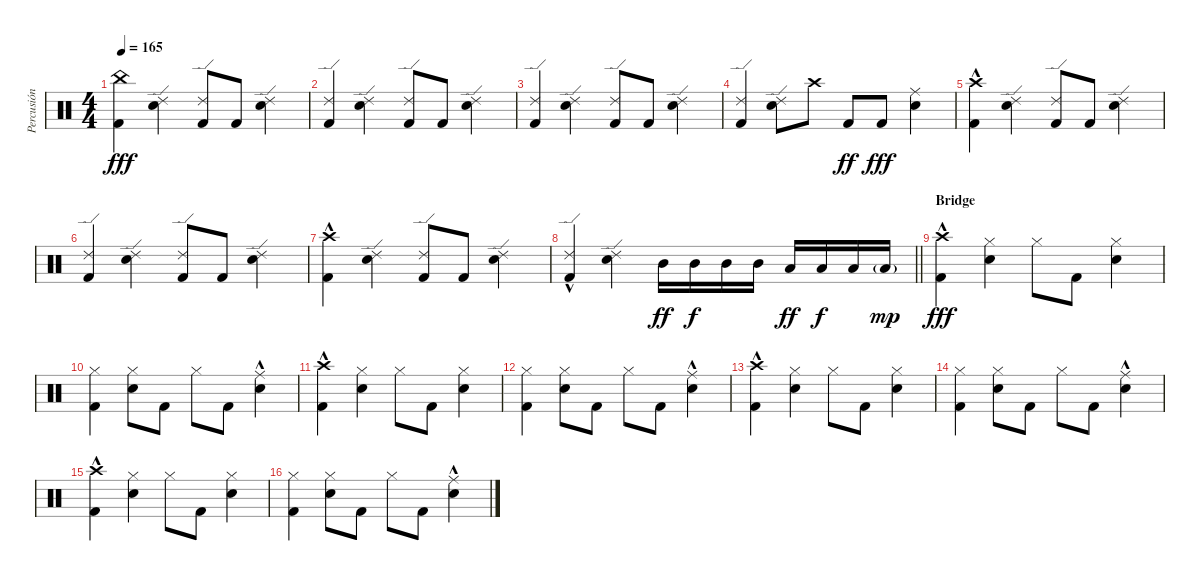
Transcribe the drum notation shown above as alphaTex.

\track ("Percusión" "Percusión") {instrument percussion}
\staff {score}
\articulation defaults
\ts (4 4)
\tempo 165
\clef neutral
\ks c
("Kick (hit) 2" "China (hit)").4{dy fff} ("Electric Snare (hit)" "Ride (edge) 2").4 ("Kick (hit) 2" "Ride (edge) 2").8 "Kick (hit) 2".8 ("Electric Snare (hit)" "Ride (edge) 2").4 |
("Kick (hit) 2" "Ride (edge) 2").4 ("Electric Snare (hit)" "Ride (edge) 2").4 ("Kick (hit) 2" "Ride (edge) 2").8 "Kick (hit) 2".8 ("Electric Snare (hit)" "Ride (edge) 2").4 |
("Kick (hit) 2" "Ride (edge) 2").4 ("Electric Snare (hit)" "Ride (edge) 2").4 ("Kick (hit) 2" "Ride (edge) 2").8 "Kick (hit) 2".8 ("Electric Snare (hit)" "Ride (edge) 2").4 |
("Kick (hit) 2" "Ride (edge) 2").4 ("Electric Snare (hit)" "Ride (edge) 2").8 "Crash high (hit)".8 "Kick (hit) 2".8{dy ff} "Kick (hit) 2".8{dy fff} ("Electric Snare (hit)" "Ride (middle)").4 |
("Kick (hit) 2" "Crash high (hit)"{hac}).4 ("Electric Snare (hit)" "Ride (edge) 2").4 ("Kick (hit) 2" "Ride (edge) 2").8 "Kick (hit) 2".8 ("Electric Snare (hit)" "Ride (edge) 2").4 |
("Kick (hit) 2" "Ride (edge) 2").4 ("Electric Snare (hit)" "Ride (edge) 2").4 ("Kick (hit) 2" "Ride (edge) 2").8 "Kick (hit) 2".8 ("Electric Snare (hit)" "Ride (edge) 2").4 |
("Kick (hit) 2" "Crash high (hit)"{hac}).4 ("Electric Snare (hit)" "Ride (edge) 2").4 ("Kick (hit) 2" "Ride (edge) 2").8 "Kick (hit) 2".8 ("Electric Snare (hit)" "Ride (edge) 2").4 |
\barLineRight lightlight
("Kick (hit) 2" "Ride (edge) 2"{hac}).4 ("Electric Snare (hit)" "Ride (edge) 2").4 "Mid Tom (hit)".16{dy ff} "Mid Tom (hit)".16{dy f} "Mid Tom (hit)".16 "Mid Tom (hit)".16 "Low Tom (hit)".16{dy ff} "Low Tom (hit)".16{dy f} "Low Tom (hit)".16 "Low Tom (hit)"{g}.16{dy mp} |
\section ("" "Bridge")
("Kick (hit) 2" "Crash high (hit)"{hac}).4{dy fff} ("Electric Snare (hit)" "Hi-Hat (closed)").4 "Hi-Hat (closed)".8 "Kick (hit) 2".8 ("Electric Snare (hit)" "Hi-Hat (closed)").4 |
("Kick (hit) 2" "Hi-Hat (closed)").4 ("Electric Snare (hit)" "Hi-Hat (closed)").8 "Kick (hit) 2".8 "Hi-Hat (closed)".8 "Kick (hit) 2".8 ("Electric Snare (hit)" "Ride (middle)"{hac}).4 |
("Kick (hit) 2" "Crash high (hit)"{hac}).4 ("Electric Snare (hit)" "Hi-Hat (closed)").4 "Hi-Hat (closed)".8 "Kick (hit) 2".8 ("Electric Snare (hit)" "Hi-Hat (closed)").4 |
("Kick (hit) 2" "Hi-Hat (closed)").4 ("Electric Snare (hit)" "Hi-Hat (closed)").8 "Kick (hit) 2".8 "Hi-Hat (closed)".8 "Kick (hit) 2".8 ("Electric Snare (hit)" "Ride (middle)"{hac}).4 |
("Kick (hit) 2" "Crash high (hit)"{hac}).4 ("Electric Snare (hit)" "Hi-Hat (closed)").4 "Hi-Hat (closed)".8 "Kick (hit) 2".8 ("Electric Snare (hit)" "Hi-Hat (closed)").4 |
("Kick (hit) 2" "Hi-Hat (closed)").4 ("Electric Snare (hit)" "Hi-Hat (closed)").8 "Kick (hit) 2".8 "Hi-Hat (closed)".8 "Kick (hit) 2".8 ("Electric Snare (hit)" "Ride (middle)"{hac}).4 |
("Kick (hit) 2" "Crash high (hit)"{hac}).4 ("Electric Snare (hit)" "Hi-Hat (closed)").4 "Hi-Hat (closed)".8 "Kick (hit) 2".8 ("Electric Snare (hit)" "Hi-Hat (closed)").4 |
("Kick (hit) 2" "Hi-Hat (closed)").4 ("Electric Snare (hit)" "Hi-Hat (closed)").8 "Kick (hit) 2".8 "Hi-Hat (closed)".8 "Kick (hit) 2".8 ("Electric Snare (hit)" "Ride (middle)"{hac}).4
